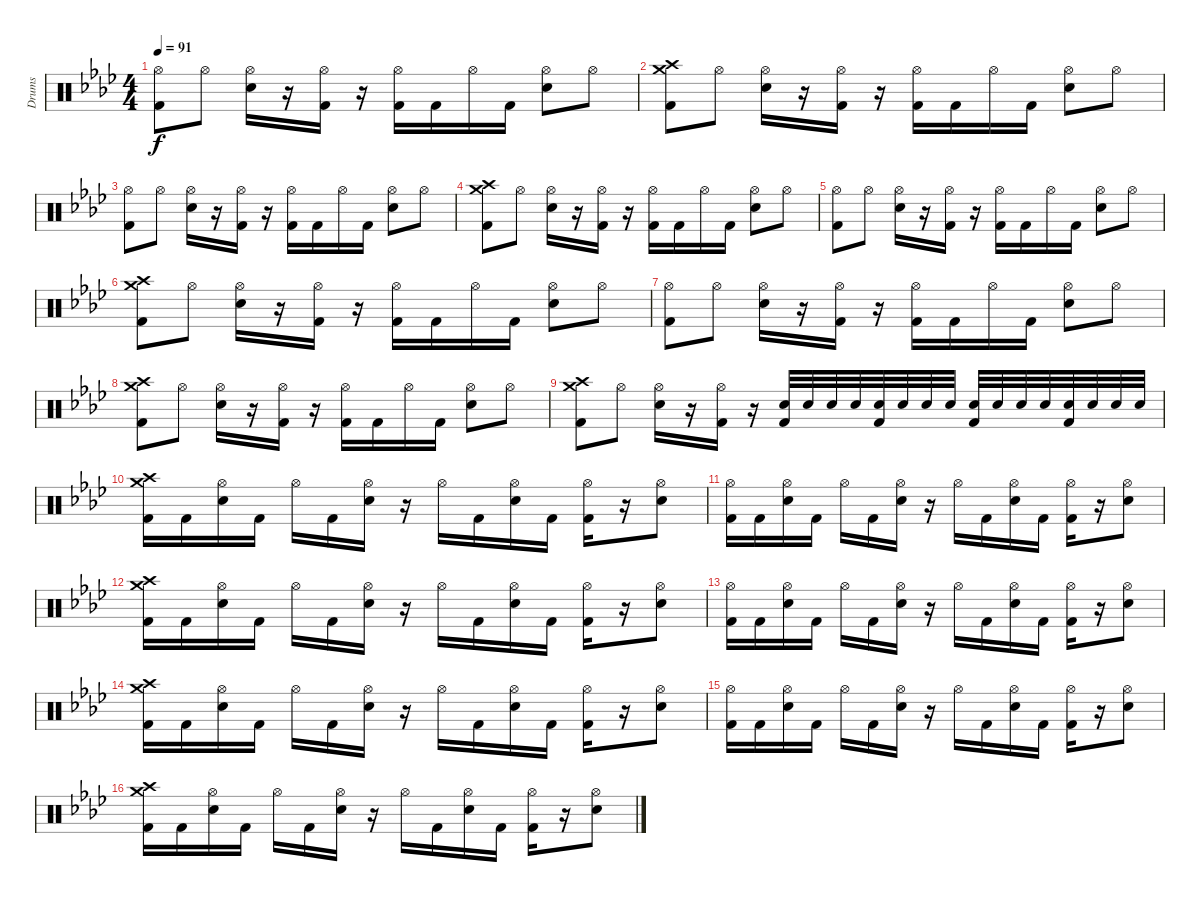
\track ("Drums" "Drums") {instrument percussion}
\staff {score}
\articulation defaults
\ts (4 4)
\tempo 91
\clef neutral
\ks fminor
("Hi-Hat (open)" "Kick (hit) 2").8{dy f} "Hi-Hat (open)".8 ("Hi-Hat (open)" "Electric Snare (hit)").16 r.16 ("Hi-Hat (open)" "Kick (hit) 2").16 r.16 ("Hi-Hat (open)" "Kick (hit) 2").16 "Kick (hit) 2".16 "Hi-Hat (open)".16 "Kick (hit) 2".16 ("Hi-Hat (open)" "Electric Snare (hit)").8 "Hi-Hat (open)".8 |
("Crash medium (hit)" "Crash high (hit)" "Kick (hit) 2").8 "Hi-Hat (open)".8 ("Hi-Hat (open)" "Electric Snare (hit)").16 r.16 ("Hi-Hat (open)" "Kick (hit) 2").16 r.16 ("Hi-Hat (open)" "Kick (hit) 2").16 "Kick (hit) 2".16 "Hi-Hat (open)".16 "Kick (hit) 2".16 ("Hi-Hat (open)" "Electric Snare (hit)").8 "Hi-Hat (open)".8 |
("Hi-Hat (open)" "Kick (hit) 2").8 "Hi-Hat (open)".8 ("Hi-Hat (open)" "Electric Snare (hit)").16 r.16 ("Hi-Hat (open)" "Kick (hit) 2").16 r.16 ("Hi-Hat (open)" "Kick (hit) 2").16 "Kick (hit) 2".16 "Hi-Hat (open)".16 "Kick (hit) 2".16 ("Hi-Hat (open)" "Electric Snare (hit)").8 "Hi-Hat (open)".8 |
("Crash medium (hit)" "Crash high (hit)" "Kick (hit) 2").8 "Hi-Hat (open)".8 ("Hi-Hat (open)" "Electric Snare (hit)").16 r.16 ("Hi-Hat (open)" "Kick (hit) 2").16 r.16 ("Hi-Hat (open)" "Kick (hit) 2").16 "Kick (hit) 2".16 "Hi-Hat (open)".16 "Kick (hit) 2".16 ("Hi-Hat (open)" "Electric Snare (hit)").8 "Hi-Hat (open)".8 |
("Hi-Hat (open)" "Kick (hit) 2").8 "Hi-Hat (open)".8 ("Hi-Hat (open)" "Electric Snare (hit)").16 r.16 ("Hi-Hat (open)" "Kick (hit) 2").16 r.16 ("Hi-Hat (open)" "Kick (hit) 2").16 "Kick (hit) 2".16 "Hi-Hat (open)".16 "Kick (hit) 2".16 ("Hi-Hat (open)" "Electric Snare (hit)").8 "Hi-Hat (open)".8 |
("Crash medium (hit)" "Crash high (hit)" "Kick (hit) 2").8 "Hi-Hat (open)".8 ("Hi-Hat (open)" "Electric Snare (hit)").16 r.16 ("Hi-Hat (open)" "Kick (hit) 2").16 r.16 ("Hi-Hat (open)" "Kick (hit) 2").16 "Kick (hit) 2".16 "Hi-Hat (open)".16 "Kick (hit) 2".16 ("Hi-Hat (open)" "Electric Snare (hit)").8 "Hi-Hat (open)".8 |
("Hi-Hat (open)" "Kick (hit) 2").8 "Hi-Hat (open)".8 ("Hi-Hat (open)" "Electric Snare (hit)").16 r.16 ("Hi-Hat (open)" "Kick (hit) 2").16 r.16 ("Hi-Hat (open)" "Kick (hit) 2").16 "Kick (hit) 2".16 "Hi-Hat (open)".16 "Kick (hit) 2".16 ("Hi-Hat (open)" "Electric Snare (hit)").8 "Hi-Hat (open)".8 |
("Crash medium (hit)" "Crash high (hit)" "Kick (hit) 2").8 "Hi-Hat (open)".8 ("Hi-Hat (open)" "Electric Snare (hit)").16 r.16 ("Hi-Hat (open)" "Kick (hit) 2").16 r.16 ("Hi-Hat (open)" "Kick (hit) 2").16 "Kick (hit) 2".16 "Hi-Hat (open)".16 "Kick (hit) 2".16 ("Hi-Hat (open)" "Electric Snare (hit)").8 "Hi-Hat (open)".8 |
("Crash medium (hit)" "Crash high (hit)" "Kick (hit) 2").8 "Hi-Hat (open)".8 ("Hi-Hat (open)" "Electric Snare (hit)").16 r.16 ("Hi-Hat (open)" "Kick (hit) 2").16 r.16 ("Electric Snare (hit)" "Kick (hit) 2").32 "Electric Snare (hit)".32 "Electric Snare (hit)".32 "Electric Snare (hit)".32 ("Electric Snare (hit)" "Kick (hit) 2").32 "Electric Snare (hit)".32 "Electric Snare (hit)".32 "Electric Snare (hit)".32 ("Electric Snare (hit)" "Kick (hit) 2").32 "Electric Snare (hit)".32 "Electric Snare (hit)".32 "Electric Snare (hit)".32 ("Electric Snare (hit)" "Kick (hit) 2").32 "Electric Snare (hit)".32 "Electric Snare (hit)".32 "Electric Snare (hit)".32 |
("Crash medium (hit)" "Crash high (hit)" "Kick (hit) 2").16 "Kick (hit) 2".16 ("Hi-Hat (open)" "Electric Snare (hit)").16 "Kick (hit) 2".16 "Hi-Hat (open)".16 "Kick (hit) 2".16 ("Hi-Hat (open)" "Electric Snare (hit)").16 r.16 "Hi-Hat (open)".16 "Kick (hit) 2".16 ("Hi-Hat (open)" "Electric Snare (hit)").16 "Kick (hit) 2".16 ("Hi-Hat (open)" "Kick (hit) 2").16 r.16 ("Hi-Hat (open)" "Electric Snare (hit)").8 |
("Hi-Hat (open)" "Kick (hit) 2").16 "Kick (hit) 2".16 ("Hi-Hat (open)" "Electric Snare (hit)").16 "Kick (hit) 2".16 "Hi-Hat (open)".16 "Kick (hit) 2".16 ("Hi-Hat (open)" "Electric Snare (hit)").16 r.16 "Hi-Hat (open)".16 "Kick (hit) 2".16 ("Hi-Hat (open)" "Electric Snare (hit)").16 "Kick (hit) 2".16 ("Hi-Hat (open)" "Kick (hit) 2").16 r.16 ("Hi-Hat (open)" "Electric Snare (hit)").8 |
("Crash medium (hit)" "Crash high (hit)" "Kick (hit) 2").16 "Kick (hit) 2".16 ("Hi-Hat (open)" "Electric Snare (hit)").16 "Kick (hit) 2".16 "Hi-Hat (open)".16 "Kick (hit) 2".16 ("Hi-Hat (open)" "Electric Snare (hit)").16 r.16 "Hi-Hat (open)".16 "Kick (hit) 2".16 ("Hi-Hat (open)" "Electric Snare (hit)").16 "Kick (hit) 2".16 ("Hi-Hat (open)" "Kick (hit) 2").16 r.16 ("Hi-Hat (open)" "Electric Snare (hit)").8 |
("Hi-Hat (open)" "Kick (hit) 2").16 "Kick (hit) 2".16 ("Hi-Hat (open)" "Electric Snare (hit)").16 "Kick (hit) 2".16 "Hi-Hat (open)".16 "Kick (hit) 2".16 ("Hi-Hat (open)" "Electric Snare (hit)").16 r.16 "Hi-Hat (open)".16 "Kick (hit) 2".16 ("Hi-Hat (open)" "Electric Snare (hit)").16 "Kick (hit) 2".16 ("Hi-Hat (open)" "Kick (hit) 2").16 r.16 ("Hi-Hat (open)" "Electric Snare (hit)").8 |
("Crash medium (hit)" "Crash high (hit)" "Kick (hit) 2").16 "Kick (hit) 2".16 ("Hi-Hat (open)" "Electric Snare (hit)").16 "Kick (hit) 2".16 "Hi-Hat (open)".16 "Kick (hit) 2".16 ("Hi-Hat (open)" "Electric Snare (hit)").16 r.16 "Hi-Hat (open)".16 "Kick (hit) 2".16 ("Hi-Hat (open)" "Electric Snare (hit)").16 "Kick (hit) 2".16 ("Hi-Hat (open)" "Kick (hit) 2").16 r.16 ("Hi-Hat (open)" "Electric Snare (hit)").8 |
("Hi-Hat (open)" "Kick (hit) 2").16 "Kick (hit) 2".16 ("Hi-Hat (open)" "Electric Snare (hit)").16 "Kick (hit) 2".16 "Hi-Hat (open)".16 "Kick (hit) 2".16 ("Hi-Hat (open)" "Electric Snare (hit)").16 r.16 "Hi-Hat (open)".16 "Kick (hit) 2".16 ("Hi-Hat (open)" "Electric Snare (hit)").16 "Kick (hit) 2".16 ("Hi-Hat (open)" "Kick (hit) 2").16 r.16 ("Hi-Hat (open)" "Electric Snare (hit)").8 |
("Crash medium (hit)" "Crash high (hit)" "Kick (hit) 2").16 "Kick (hit) 2".16 ("Hi-Hat (open)" "Electric Snare (hit)").16 "Kick (hit) 2".16 "Hi-Hat (open)".16 "Kick (hit) 2".16 ("Hi-Hat (open)" "Electric Snare (hit)").16 r.16 "Hi-Hat (open)".16 "Kick (hit) 2".16 ("Hi-Hat (open)" "Electric Snare (hit)").16 "Kick (hit) 2".16 ("Hi-Hat (open)" "Kick (hit) 2").16 r.16 ("Hi-Hat (open)" "Electric Snare (hit)").8
